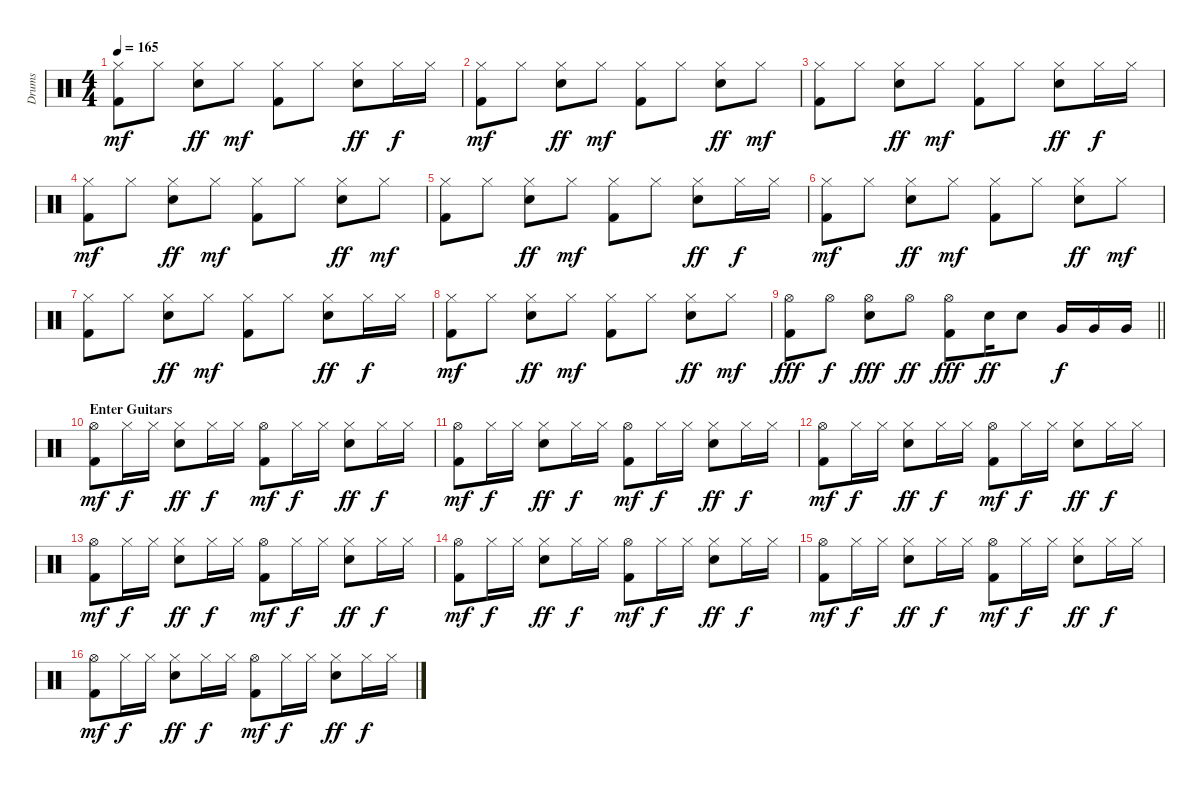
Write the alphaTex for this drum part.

\track ("Drums" "Drums") {instrument percussion}
\staff {score}
\articulation defaults
\ts (4 4)
\tempo 165
\clef neutral
\ks c
("Hi-Hat (closed)" "Kick (hit) 2").8{dy mf} "Hi-Hat (closed)".8 ("Hi-Hat (closed)" "Electric Snare (hit)").8{dy ff} "Hi-Hat (closed)".8{dy mf} ("Hi-Hat (closed)" "Kick (hit) 2").8 "Hi-Hat (closed)".8 ("Hi-Hat (closed)" "Electric Snare (hit)").8{dy ff} "Hi-Hat (closed)".16{dy f} "Hi-Hat (closed)".16 |
("Hi-Hat (closed)" "Kick (hit) 2").8{dy mf} "Hi-Hat (closed)".8 ("Hi-Hat (closed)" "Electric Snare (hit)").8{dy ff} "Hi-Hat (closed)".8{dy mf} ("Hi-Hat (closed)" "Kick (hit) 2").8 "Hi-Hat (closed)".8 ("Hi-Hat (closed)" "Electric Snare (hit)").8{dy ff} "Hi-Hat (closed)".8{dy mf} |
("Hi-Hat (closed)" "Kick (hit) 2").8 "Hi-Hat (closed)".8 ("Hi-Hat (closed)" "Electric Snare (hit)").8{dy ff} "Hi-Hat (closed)".8{dy mf} ("Hi-Hat (closed)" "Kick (hit) 2").8 "Hi-Hat (closed)".8 ("Hi-Hat (closed)" "Electric Snare (hit)").8{dy ff} "Hi-Hat (closed)".16{dy f} "Hi-Hat (closed)".16 |
("Hi-Hat (closed)" "Kick (hit) 2").8{dy mf} "Hi-Hat (closed)".8 ("Hi-Hat (closed)" "Electric Snare (hit)").8{dy ff} "Hi-Hat (closed)".8{dy mf} ("Hi-Hat (closed)" "Kick (hit) 2").8 "Hi-Hat (closed)".8 ("Hi-Hat (closed)" "Electric Snare (hit)").8{dy ff} "Hi-Hat (closed)".8{dy mf} |
("Hi-Hat (closed)" "Kick (hit) 2").8 "Hi-Hat (closed)".8 ("Hi-Hat (closed)" "Electric Snare (hit)").8{dy ff} "Hi-Hat (closed)".8{dy mf} ("Hi-Hat (closed)" "Kick (hit) 2").8 "Hi-Hat (closed)".8 ("Hi-Hat (closed)" "Electric Snare (hit)").8{dy ff} "Hi-Hat (closed)".16{dy f} "Hi-Hat (closed)".16 |
("Hi-Hat (closed)" "Kick (hit) 2").8{dy mf} "Hi-Hat (closed)".8 ("Hi-Hat (closed)" "Electric Snare (hit)").8{dy ff} "Hi-Hat (closed)".8{dy mf} ("Hi-Hat (closed)" "Kick (hit) 2").8 "Hi-Hat (closed)".8 ("Hi-Hat (closed)" "Electric Snare (hit)").8{dy ff} "Hi-Hat (closed)".8{dy mf} |
("Hi-Hat (closed)" "Kick (hit) 2").8 "Hi-Hat (closed)".8 ("Hi-Hat (closed)" "Electric Snare (hit)").8{dy ff} "Hi-Hat (closed)".8{dy mf} ("Hi-Hat (closed)" "Kick (hit) 2").8 "Hi-Hat (closed)".8 ("Hi-Hat (closed)" "Electric Snare (hit)").8{dy ff} "Hi-Hat (closed)".16{dy f} "Hi-Hat (closed)".16 |
("Hi-Hat (closed)" "Kick (hit) 2").8{dy mf} "Hi-Hat (closed)".8 ("Hi-Hat (closed)" "Electric Snare (hit)").8{dy ff} "Hi-Hat (closed)".8{dy mf} ("Hi-Hat (closed)" "Kick (hit) 2").8 "Hi-Hat (closed)".8 ("Hi-Hat (closed)" "Electric Snare (hit)").8{dy ff} "Hi-Hat (closed)".8{dy mf} |
\barLineRight lightlight
("Hi-Hat (open)" "Kick (hit) 2").8{dy fff} "Hi-Hat (open)".8{dy f} ("Hi-Hat (open)" "Electric Snare (hit)").8{dy fff} "Hi-Hat (open)".8{dy ff} ("Hi-Hat (open)" "Kick (hit) 2").8{dy fff} "Electric Snare (hit)".16{dy ff} "Electric Snare (hit)".8 "Very Low Tom (hit)".16{dy f} "Very Low Tom (hit)".16 "Very Low Tom (hit)".16 |
\section ("" "Enter Guitars")
("Hi-Hat (open)" "Kick (hit) 2").8{dy mf} "Hi-Hat (closed)".16{dy f} "Hi-Hat (closed)".16 ("Hi-Hat (closed)" "Electric Snare (hit)").8{dy ff} "Hi-Hat (closed)".16{dy f} "Hi-Hat (closed)".16 ("Hi-Hat (open)" "Kick (hit) 2").8{dy mf} "Hi-Hat (closed)".16{dy f} "Hi-Hat (closed)".16 ("Hi-Hat (closed)" "Electric Snare (hit)").8{dy ff} "Hi-Hat (closed)".16{dy f} "Hi-Hat (closed)".16 |
("Hi-Hat (open)" "Kick (hit) 2").8{dy mf} "Hi-Hat (closed)".16{dy f} "Hi-Hat (closed)".16 ("Hi-Hat (closed)" "Electric Snare (hit)").8{dy ff} "Hi-Hat (closed)".16{dy f} "Hi-Hat (closed)".16 ("Hi-Hat (open)" "Kick (hit) 2").8{dy mf} "Hi-Hat (closed)".16{dy f} "Hi-Hat (closed)".16 ("Hi-Hat (closed)" "Electric Snare (hit)").8{dy ff} "Hi-Hat (closed)".16{dy f} "Hi-Hat (closed)".16 |
("Hi-Hat (open)" "Kick (hit) 2").8{dy mf} "Hi-Hat (closed)".16{dy f} "Hi-Hat (closed)".16 ("Hi-Hat (closed)" "Electric Snare (hit)").8{dy ff} "Hi-Hat (closed)".16{dy f} "Hi-Hat (closed)".16 ("Hi-Hat (open)" "Kick (hit) 2").8{dy mf} "Hi-Hat (closed)".16{dy f} "Hi-Hat (closed)".16 ("Hi-Hat (closed)" "Electric Snare (hit)").8{dy ff} "Hi-Hat (closed)".16{dy f} "Hi-Hat (closed)".16 |
("Hi-Hat (open)" "Kick (hit) 2").8{dy mf} "Hi-Hat (closed)".16{dy f} "Hi-Hat (closed)".16 ("Hi-Hat (closed)" "Electric Snare (hit)").8{dy ff} "Hi-Hat (closed)".16{dy f} "Hi-Hat (closed)".16 ("Hi-Hat (open)" "Kick (hit) 2").8{dy mf} "Hi-Hat (closed)".16{dy f} "Hi-Hat (closed)".16 ("Hi-Hat (closed)" "Electric Snare (hit)").8{dy ff} "Hi-Hat (closed)".16{dy f} "Hi-Hat (closed)".16 |
("Hi-Hat (open)" "Kick (hit) 2").8{dy mf} "Hi-Hat (closed)".16{dy f} "Hi-Hat (closed)".16 ("Hi-Hat (closed)" "Electric Snare (hit)").8{dy ff} "Hi-Hat (closed)".16{dy f} "Hi-Hat (closed)".16 ("Hi-Hat (open)" "Kick (hit) 2").8{dy mf} "Hi-Hat (closed)".16{dy f} "Hi-Hat (closed)".16 ("Hi-Hat (closed)" "Electric Snare (hit)").8{dy ff} "Hi-Hat (closed)".16{dy f} "Hi-Hat (closed)".16 |
("Hi-Hat (open)" "Kick (hit) 2").8{dy mf} "Hi-Hat (closed)".16{dy f} "Hi-Hat (closed)".16 ("Hi-Hat (closed)" "Electric Snare (hit)").8{dy ff} "Hi-Hat (closed)".16{dy f} "Hi-Hat (closed)".16 ("Hi-Hat (open)" "Kick (hit) 2").8{dy mf} "Hi-Hat (closed)".16{dy f} "Hi-Hat (closed)".16 ("Hi-Hat (closed)" "Electric Snare (hit)").8{dy ff} "Hi-Hat (closed)".16{dy f} "Hi-Hat (closed)".16 |
("Hi-Hat (open)" "Kick (hit) 2").8{dy mf} "Hi-Hat (closed)".16{dy f} "Hi-Hat (closed)".16 ("Hi-Hat (closed)" "Electric Snare (hit)").8{dy ff} "Hi-Hat (closed)".16{dy f} "Hi-Hat (closed)".16 ("Hi-Hat (open)" "Kick (hit) 2").8{dy mf} "Hi-Hat (closed)".16{dy f} "Hi-Hat (closed)".16 ("Hi-Hat (closed)" "Electric Snare (hit)").8{dy ff} "Hi-Hat (closed)".16{dy f} "Hi-Hat (closed)".16
